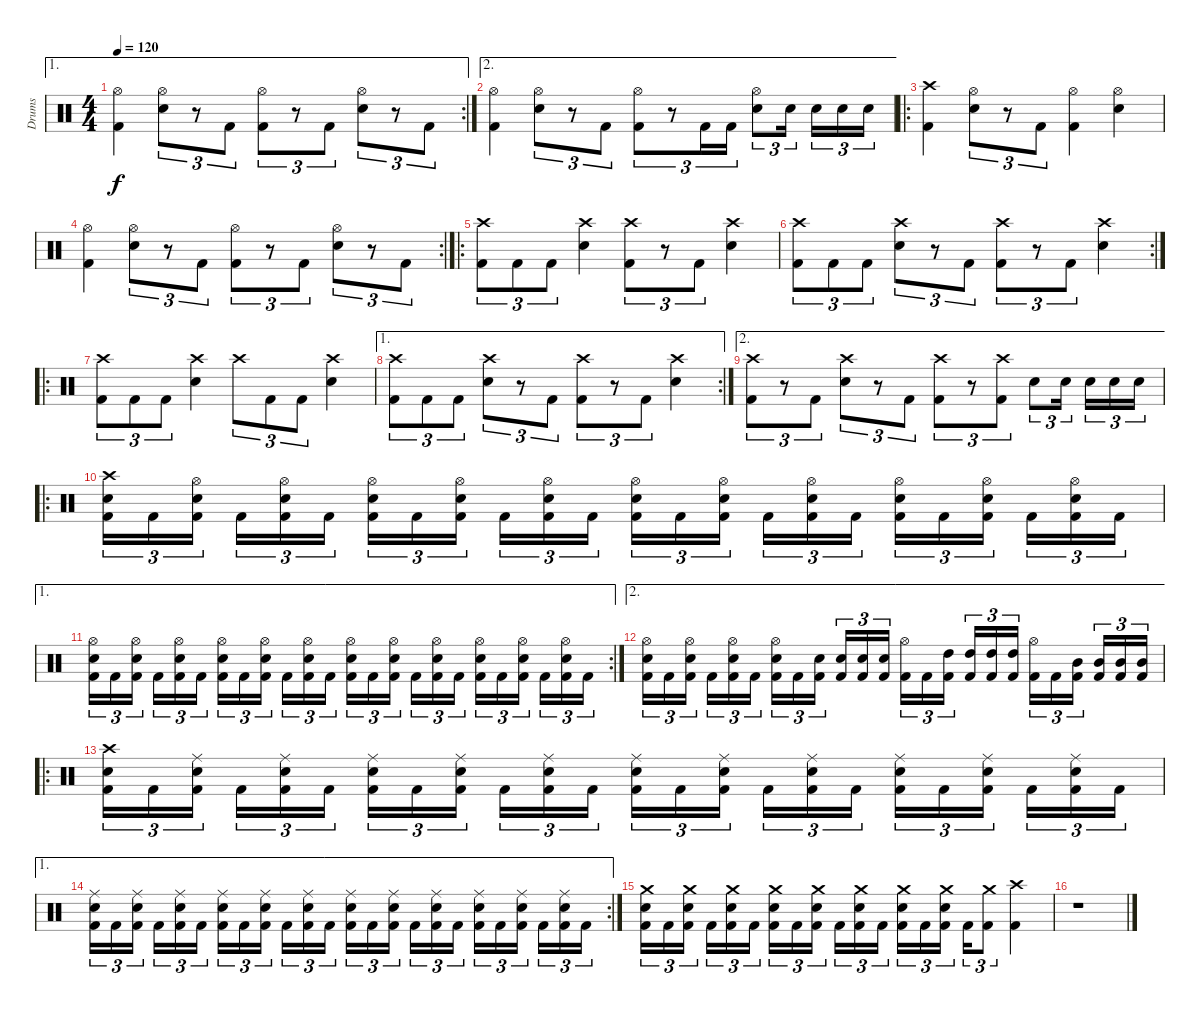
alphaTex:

\track ("Drums" "Drums") {instrument percussion}
\staff {score}
\articulation defaults
\ae 1
\rc 2
\ts (4 4)
\tempo 120
\clef neutral
\ks c
("Hi-Hat (open)" "Kick (hit) 2").4{dy f} ("Hi-Hat (open)" "Electric Snare (hit)").8{tu (3 2)} r.8{tu (3 2)} "Kick (hit) 2".8{tu (3 2)} ("Hi-Hat (open)" "Kick (hit) 2").8{tu (3 2)} r.8{tu (3 2)} "Kick (hit) 2".8{tu (3 2)} ("Hi-Hat (open)" "Electric Snare (hit)").8{tu (3 2)} r.8{tu (3 2)} "Kick (hit) 2".8{tu (3 2)} |
\ae 2
("Hi-Hat (open)" "Kick (hit) 2").4 ("Hi-Hat (open)" "Electric Snare (hit)").8{tu (3 2)} r.8{tu (3 2)} "Kick (hit) 2".8{tu (3 2)} ("Hi-Hat (open)" "Kick (hit) 2").8{tu (3 2)} r.8{tu (3 2)} "Kick (hit) 2".16{tu (3 2)} "Kick (hit) 2".16{tu (3 2)} ("Hi-Hat (open)" "Electric Snare (hit)").8{tu (3 2)} "Electric Snare (hit)".16{tu (3 2)} "Electric Snare (hit)".16{tu (3 2)} "Electric Snare (hit)".16{tu (3 2)} "Electric Snare (hit)".16{tu (3 2)} |
\ro
("Crash high (hit)" "Kick (hit) 2").4 ("Hi-Hat (open)" "Electric Snare (hit)").8{tu (3 2)} r.8{tu (3 2)} "Kick (hit) 2".8{tu (3 2)} ("Hi-Hat (open)" "Kick (hit) 2").4 ("Hi-Hat (open)" "Electric Snare (hit)").4 |
\rc 2
("Hi-Hat (open)" "Kick (hit) 2").4 ("Hi-Hat (open)" "Electric Snare (hit)").8{tu (3 2)} r.8{tu (3 2)} "Kick (hit) 2".8{tu (3 2)} ("Hi-Hat (open)" "Kick (hit) 2").8{tu (3 2)} r.8{tu (3 2)} "Kick (hit) 2".8{tu (3 2)} ("Hi-Hat (open)" "Electric Snare (hit)").8{tu (3 2)} r.8{tu (3 2)} "Kick (hit) 2".8{tu (3 2)} |
\ro
("Crash high (hit)" "Kick (hit) 2").8{tu (3 2)} "Kick (hit) 2".8{tu (3 2)} "Kick (hit) 2".8{tu (3 2)} ("Crash high (hit)" "Electric Snare (hit)").4 ("Crash high (hit)" "Kick (hit) 2").8{tu (3 2)} r.8{tu (3 2)} "Kick (hit) 2".8{tu (3 2)} ("Crash high (hit)" "Electric Snare (hit)").4 |
\rc 2
("Crash high (hit)" "Kick (hit) 2").8{tu (3 2)} "Kick (hit) 2".8{tu (3 2)} "Kick (hit) 2".8{tu (3 2)} ("Crash high (hit)" "Electric Snare (hit)").8{tu (3 2)} r.8{tu (3 2)} "Kick (hit) 2".8{tu (3 2)} ("Crash high (hit)" "Kick (hit) 2").8{tu (3 2)} r.8{tu (3 2)} "Kick (hit) 2".8{tu (3 2)} ("Crash high (hit)" "Electric Snare (hit)").4 |
\ro
("Crash high (hit)" "Kick (hit) 2").8{tu (3 2)} "Kick (hit) 2".8{tu (3 2)} "Kick (hit) 2".8{tu (3 2)} ("Crash high (hit)" "Electric Snare (hit)").4 "Crash high (hit)".8{tu (3 2)} "Kick (hit) 2".8{tu (3 2)} "Kick (hit) 2".8{tu (3 2)} ("Crash high (hit)" "Electric Snare (hit)").4 |
\ae 1
\rc 2
("Crash high (hit)" "Kick (hit) 2").8{tu (3 2)} "Kick (hit) 2".8{tu (3 2)} "Kick (hit) 2".8{tu (3 2)} ("Crash high (hit)" "Electric Snare (hit)").8{tu (3 2)} r.8{tu (3 2)} "Kick (hit) 2".8{tu (3 2)} ("Crash high (hit)" "Kick (hit) 2").8{tu (3 2)} r.8{tu (3 2)} "Kick (hit) 2".8{tu (3 2)} ("Crash high (hit)" "Electric Snare (hit)").4 |
\ae 2
("Crash high (hit)" "Kick (hit) 2").8{tu (3 2)} r.8{tu (3 2)} "Kick (hit) 2".8{tu (3 2)} ("Crash high (hit)" "Electric Snare (hit)").8{tu (3 2)} r.8{tu (3 2)} "Kick (hit) 2".8{tu (3 2)} ("Crash high (hit)" "Kick (hit) 2").8{tu (3 2)} r.8{tu (3 2)} ("Crash high (hit)" "Kick (hit) 2").8{tu (3 2)} "Electric Snare (hit)".8{tu (3 2)} "Electric Snare (hit)".16{tu (3 2)} "Electric Snare (hit)".16{tu (3 2)} "Electric Snare (hit)".16{tu (3 2)} "Electric Snare (hit)".16{tu (3 2)} |
\ro
("Crash high (hit)" "Electric Snare (hit)" "Kick (hit) 2").16{tu (3 2)} "Kick (hit) 2".16{tu (3 2)} ("Hi-Hat (open)" "Electric Snare (hit)" "Kick (hit) 2").16{tu (3 2)} "Kick (hit) 2".16{tu (3 2)} ("Hi-Hat (open)" "Electric Snare (hit)" "Kick (hit) 2").16{tu (3 2)} "Kick (hit) 2".16{tu (3 2)} ("Hi-Hat (open)" "Electric Snare (hit)" "Kick (hit) 2").16{tu (3 2)} "Kick (hit) 2".16{tu (3 2)} ("Hi-Hat (open)" "Electric Snare (hit)" "Kick (hit) 2").16{tu (3 2)} "Kick (hit) 2".16{tu (3 2)} ("Hi-Hat (open)" "Electric Snare (hit)" "Kick (hit) 2").16{tu (3 2)} "Kick (hit) 2".16{tu (3 2)} ("Hi-Hat (open)" "Electric Snare (hit)" "Kick (hit) 2").16{tu (3 2)} "Kick (hit) 2".16{tu (3 2)} ("Hi-Hat (open)" "Electric Snare (hit)" "Kick (hit) 2").16{tu (3 2)} "Kick (hit) 2".16{tu (3 2)} ("Hi-Hat (open)" "Electric Snare (hit)" "Kick (hit) 2").16{tu (3 2)} "Kick (hit) 2".16{tu (3 2)} ("Hi-Hat (open)" "Electric Snare (hit)" "Kick (hit) 2").16{tu (3 2)} "Kick (hit) 2".16{tu (3 2)} ("Hi-Hat (open)" "Electric Snare (hit)" "Kick (hit) 2").16{tu (3 2)} "Kick (hit) 2".16{tu (3 2)} ("Hi-Hat (open)" "Electric Snare (hit)" "Kick (hit) 2").16{tu (3 2)} "Kick (hit) 2".16{tu (3 2)} |
\ae 1
\rc 2
("Hi-Hat (open)" "Electric Snare (hit)" "Kick (hit) 2").16{tu (3 2)} "Kick (hit) 2".16{tu (3 2)} ("Hi-Hat (open)" "Electric Snare (hit)" "Kick (hit) 2").16{tu (3 2)} "Kick (hit) 2".16{tu (3 2)} ("Hi-Hat (open)" "Electric Snare (hit)" "Kick (hit) 2").16{tu (3 2)} "Kick (hit) 2".16{tu (3 2)} ("Hi-Hat (open)" "Electric Snare (hit)" "Kick (hit) 2").16{tu (3 2)} "Kick (hit) 2".16{tu (3 2)} ("Hi-Hat (open)" "Electric Snare (hit)" "Kick (hit) 2").16{tu (3 2)} "Kick (hit) 2".16{tu (3 2)} ("Hi-Hat (open)" "Electric Snare (hit)" "Kick (hit) 2").16{tu (3 2)} "Kick (hit) 2".16{tu (3 2)} ("Hi-Hat (open)" "Electric Snare (hit)" "Kick (hit) 2").16{tu (3 2)} "Kick (hit) 2".16{tu (3 2)} ("Hi-Hat (open)" "Electric Snare (hit)" "Kick (hit) 2").16{tu (3 2)} "Kick (hit) 2".16{tu (3 2)} ("Hi-Hat (open)" "Electric Snare (hit)" "Kick (hit) 2").16{tu (3 2)} "Kick (hit) 2".16{tu (3 2)} ("Hi-Hat (open)" "Electric Snare (hit)" "Kick (hit) 2").16{tu (3 2)} "Kick (hit) 2".16{tu (3 2)} ("Hi-Hat (open)" "Electric Snare (hit)" "Kick (hit) 2").16{tu (3 2)} "Kick (hit) 2".16{tu (3 2)} ("Hi-Hat (open)" "Electric Snare (hit)" "Kick (hit) 2").16{tu (3 2)} "Kick (hit) 2".16{tu (3 2)} |
\ae 2
("Hi-Hat (open)" "Electric Snare (hit)" "Kick (hit) 2").16{tu (3 2)} "Kick (hit) 2".16{tu (3 2)} ("Hi-Hat (open)" "Electric Snare (hit)" "Kick (hit) 2").16{tu (3 2)} "Kick (hit) 2".16{tu (3 2)} ("Hi-Hat (open)" "Electric Snare (hit)" "Kick (hit) 2").16{tu (3 2)} "Kick (hit) 2".16{tu (3 2)} ("Hi-Hat (open)" "Electric Snare (hit)" "Kick (hit) 2").16{tu (3 2)} "Kick (hit) 2".16{tu (3 2)} ("Electric Snare (hit)" "Kick (hit) 2").16{tu (3 2)} ("Electric Snare (hit)" "Kick (hit) 2").16{tu (3 2)} ("Electric Snare (hit)" "Kick (hit) 2").16{tu (3 2)} ("Electric Snare (hit)" "Kick (hit) 2").16{tu (3 2)} ("Hi-Hat (open)" "Kick (hit) 2").16{tu (3 2)} "Kick (hit) 2".16{tu (3 2)} ("High Tom (hit)" "Kick (hit) 2").16{tu (3 2)} ("High Tom (hit)" "Kick (hit) 2").16{tu (3 2)} ("High Tom (hit)" "Kick (hit) 2").16{tu (3 2)} ("High Tom (hit)" "Kick (hit) 2").16{tu (3 2)} ("Hi-Hat (open)" "Kick (hit) 2").16{tu (3 2)} "Kick (hit) 2".16{tu (3 2)} ("Mid Tom (hit)" "Kick (hit) 2").16{tu (3 2)} ("Mid Tom (hit)" "Kick (hit) 2").16{tu (3 2)} ("Mid Tom (hit)" "Kick (hit) 2").16{tu (3 2)} ("Mid Tom (hit)" "Kick (hit) 2").16{tu (3 2)} |
\ro
("Crash high (hit)" "Electric Snare (hit)" "Kick (hit) 2").16{tu (3 2)} "Kick (hit) 2".16{tu (3 2)} ("Ride (middle)" "Electric Snare (hit)" "Kick (hit) 2").16{tu (3 2)} "Kick (hit) 2".16{tu (3 2)} ("Ride (middle)" "Electric Snare (hit)" "Kick (hit) 2").16{tu (3 2)} "Kick (hit) 2".16{tu (3 2)} ("Ride (middle)" "Electric Snare (hit)" "Kick (hit) 2").16{tu (3 2)} "Kick (hit) 2".16{tu (3 2)} ("Ride (middle)" "Electric Snare (hit)" "Kick (hit) 2").16{tu (3 2)} "Kick (hit) 2".16{tu (3 2)} ("Ride (middle)" "Electric Snare (hit)" "Kick (hit) 2").16{tu (3 2)} "Kick (hit) 2".16{tu (3 2)} ("Ride (middle)" "Electric Snare (hit)" "Kick (hit) 2").16{tu (3 2)} "Kick (hit) 2".16{tu (3 2)} ("Ride (middle)" "Electric Snare (hit)" "Kick (hit) 2").16{tu (3 2)} "Kick (hit) 2".16{tu (3 2)} ("Ride (middle)" "Electric Snare (hit)" "Kick (hit) 2").16{tu (3 2)} "Kick (hit) 2".16{tu (3 2)} ("Ride (middle)" "Electric Snare (hit)" "Kick (hit) 2").16{tu (3 2)} "Kick (hit) 2".16{tu (3 2)} ("Ride (middle)" "Electric Snare (hit)" "Kick (hit) 2").16{tu (3 2)} "Kick (hit) 2".16{tu (3 2)} ("Ride (middle)" "Electric Snare (hit)" "Kick (hit) 2").16{tu (3 2)} "Kick (hit) 2".16{tu (3 2)} |
\ae 1
\rc 2
("Ride (middle)" "Electric Snare (hit)" "Kick (hit) 2").16{tu (3 2)} "Kick (hit) 2".16{tu (3 2)} ("Ride (middle)" "Electric Snare (hit)" "Kick (hit) 2").16{tu (3 2)} "Kick (hit) 2".16{tu (3 2)} ("Ride (middle)" "Electric Snare (hit)" "Kick (hit) 2").16{tu (3 2)} "Kick (hit) 2".16{tu (3 2)} ("Ride (middle)" "Electric Snare (hit)" "Kick (hit) 2").16{tu (3 2)} "Kick (hit) 2".16{tu (3 2)} ("Ride (middle)" "Electric Snare (hit)" "Kick (hit) 2").16{tu (3 2)} "Kick (hit) 2".16{tu (3 2)} ("Ride (middle)" "Electric Snare (hit)" "Kick (hit) 2").16{tu (3 2)} "Kick (hit) 2".16{tu (3 2)} ("Ride (middle)" "Electric Snare (hit)" "Kick (hit) 2").16{tu (3 2)} "Kick (hit) 2".16{tu (3 2)} ("Ride (middle)" "Electric Snare (hit)" "Kick (hit) 2").16{tu (3 2)} "Kick (hit) 2".16{tu (3 2)} ("Ride (middle)" "Electric Snare (hit)" "Kick (hit) 2").16{tu (3 2)} "Kick (hit) 2".16{tu (3 2)} ("Ride (middle)" "Electric Snare (hit)" "Kick (hit) 2").16{tu (3 2)} "Kick (hit) 2".16{tu (3 2)} ("Ride (middle)" "Electric Snare (hit)" "Kick (hit) 2").16{tu (3 2)} "Kick (hit) 2".16{tu (3 2)} ("Ride (middle)" "Electric Snare (hit)" "Kick (hit) 2").16{tu (3 2)} "Kick (hit) 2".16{tu (3 2)} |
("Crash medium (hit)" "Electric Snare (hit)" "Kick (hit) 2").16{tu (3 2)} "Kick (hit) 2".16{tu (3 2)} ("Crash medium (hit)" "Electric Snare (hit)" "Kick (hit) 2").16{tu (3 2)} "Kick (hit) 2".16{tu (3 2)} ("Crash medium (hit)" "Electric Snare (hit)" "Kick (hit) 2").16{tu (3 2)} "Kick (hit) 2".16{tu (3 2)} ("Crash medium (hit)" "Electric Snare (hit)" "Kick (hit) 2").16{tu (3 2)} "Kick (hit) 2".16{tu (3 2)} ("Crash medium (hit)" "Electric Snare (hit)" "Kick (hit) 2").16{tu (3 2)} "Kick (hit) 2".16{tu (3 2)} ("Crash medium (hit)" "Electric Snare (hit)" "Kick (hit) 2").16{tu (3 2)} "Kick (hit) 2".16{tu (3 2)} ("Crash medium (hit)" "Electric Snare (hit)" "Kick (hit) 2").16{tu (3 2)} "Kick (hit) 2".16{tu (3 2)} ("Crash medium (hit)" "Electric Snare (hit)" "Kick (hit) 2").16{tu (3 2)} "Kick (hit) 2".16{tu (3 2)} ("Crash medium (hit)" "Kick (hit) 2").8{tu (3 2)} ("Crash high (hit)" "Kick (hit) 2").4 |
r.1
